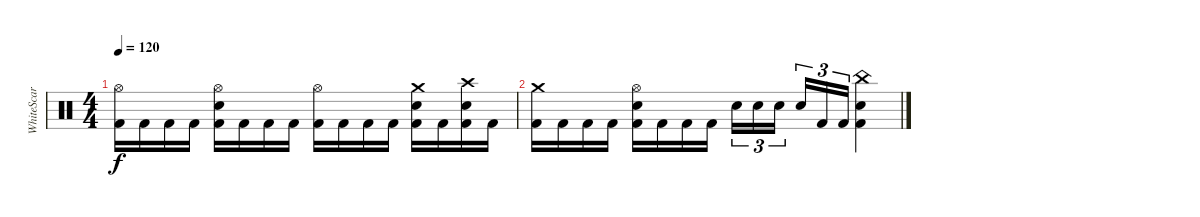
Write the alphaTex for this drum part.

\track ("WhiteScar" "WhiteScar") {instrument percussion}
\staff {score}
\articulation defaults
\ts (4 4)
\tempo 120
\clef neutral
\ks c
("Hi-Hat (open)" "Kick (hit) 2").16{dy f} "Kick (hit) 2".16 "Kick (hit) 2".16 "Kick (hit) 2".16 ("Hi-Hat (open)" "Snare (hit) 2" "Kick (hit) 2").16 "Kick (hit) 2".16 "Kick (hit) 2".16 "Kick (hit) 2".16 ("Hi-Hat (open)" "Kick (hit) 2").16 "Kick (hit) 2".16 "Kick (hit) 2".16 "Kick (hit) 2".16 ("Crash medium (hit)" "Snare (hit) 2" "Kick (hit) 2").16 "Kick (hit) 2".16 ("Crash high (hit)" "Snare (hit) 2" "Kick (hit) 2").16 "Kick (hit) 2".16 |
("Crash medium (hit)" "Kick (hit) 2").16 "Kick (hit) 2".16 "Kick (hit) 2".16 "Kick (hit) 2".16 ("Hi-Hat (open)" "Snare (hit) 2" "Kick (hit) 2").16 "Kick (hit) 2".16 "Kick (hit) 2".16 "Kick (hit) 2".16 "Snare (hit) 2".16{tu (3 2)} "Snare (hit) 2".16{tu (3 2)} "Snare (hit) 2".16{tu (3 2) beam splitsecondary} "Snare (hit) 2".16{tu (3 2)} "Kick (hit) 2".16{tu (3 2)} "Kick (hit) 2".16{tu (3 2)} ("Kick (hit) 2" "China (hit)" "Snare (hit) 2").4
